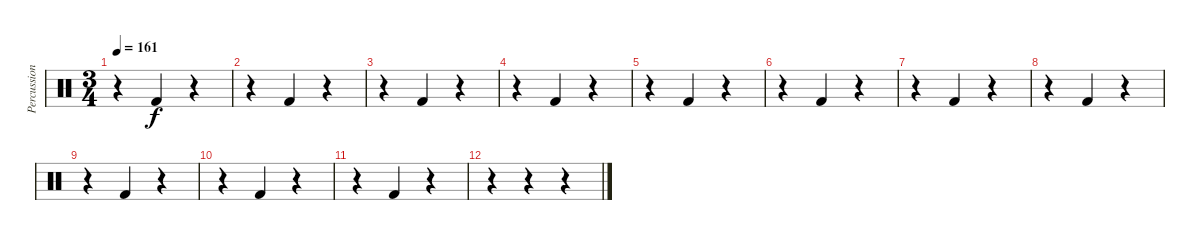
\track ("Percussion" "Percussion") {mute instrument percussion}
\staff {score}
\articulation defaults
\ts (3 4)
\tempo 161
\clef neutral
\ks c
r.4{dy f} "Kick (hit) 2".4 r.4 |
r.4 "Kick (hit) 2".4 r.4 |
r.4 "Kick (hit) 2".4 r.4 |
r.4 "Kick (hit) 2".4 r.4 |
r.4 "Kick (hit) 2".4 r.4 |
r.4 "Kick (hit) 2".4 r.4 |
r.4 "Kick (hit) 2".4 r.4 |
r.4 "Kick (hit) 2".4 r.4 |
r.4 "Kick (hit) 2".4 r.4 |
r.4 "Kick (hit) 2".4 r.4 |
r.4 "Kick (hit) 2".4 r.4 |
r.4 r.4 r.4
